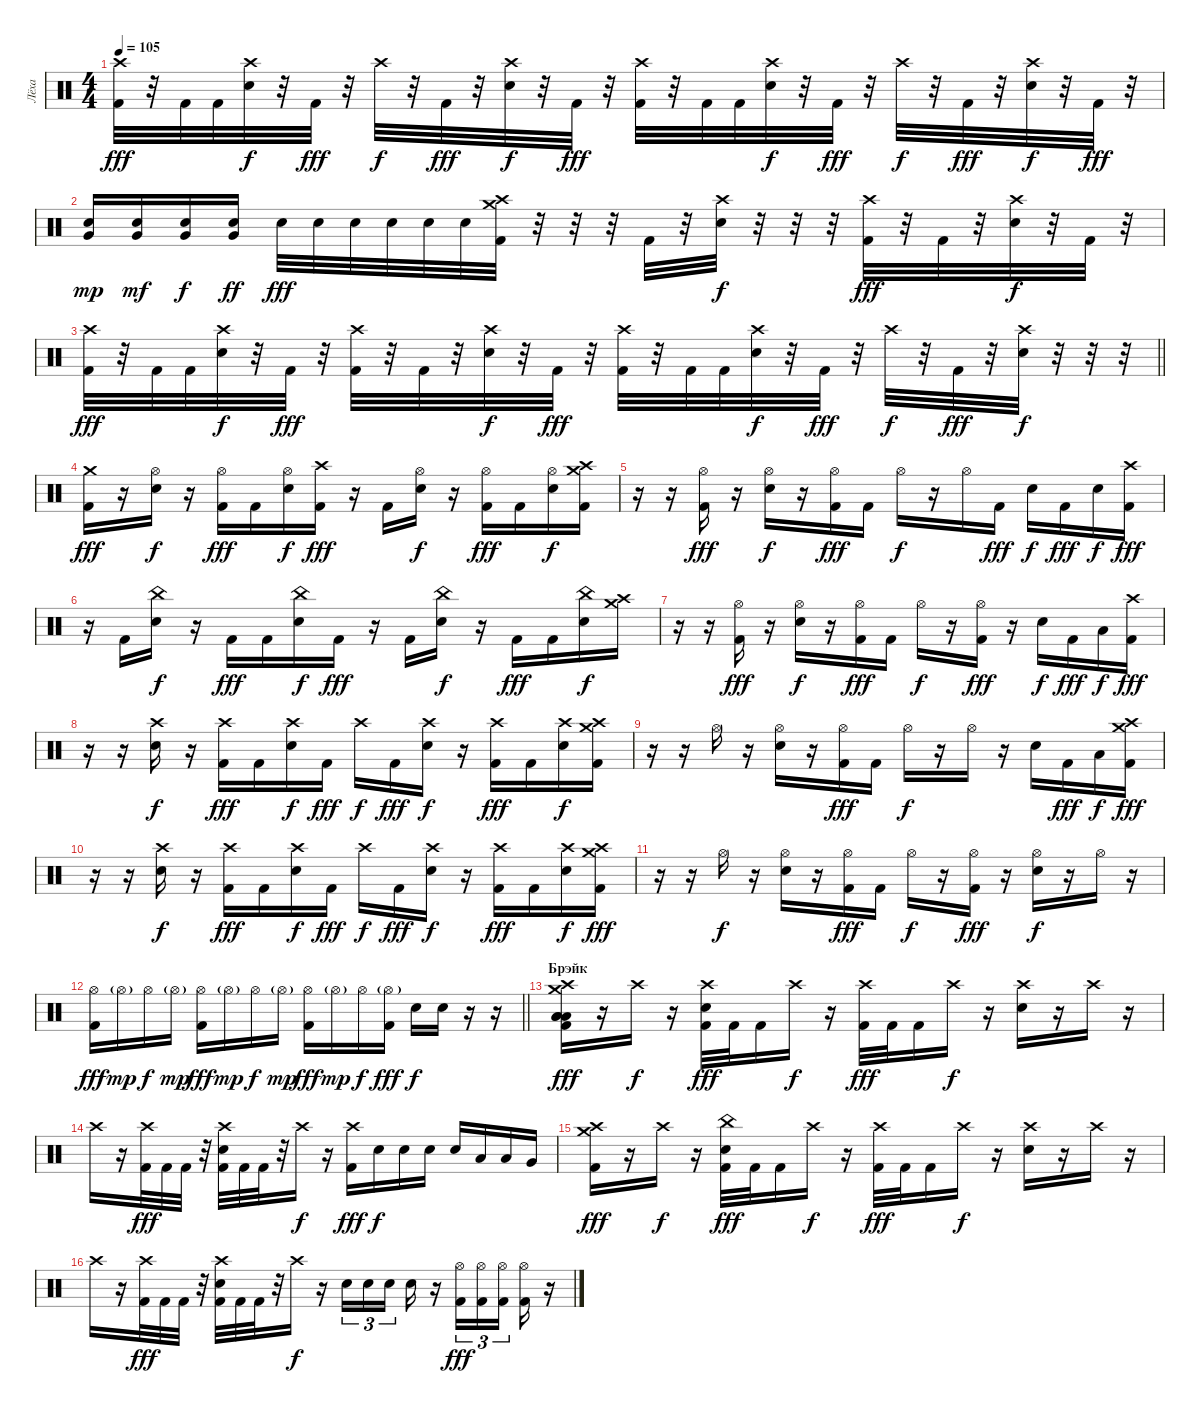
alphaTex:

\track ("Лёха" "Лёха") {solo instrument percussion}
\staff {score}
\articulation defaults
\ts (4 4)
\tempo 105
\clef neutral
\ks c
("Crash high (hit)" "Kick (hit) 2").32{dy fff} r.32 "Kick (hit) 2".32 "Kick (hit) 2".32 ("Crash high (hit)" "Electric Snare (hit)").32{dy f} r.32 "Kick (hit) 2".32{dy fff} r.32 "Crash high (hit)".32{dy f} r.32 "Kick (hit) 2".32{dy fff} r.32 ("Crash high (hit)" "Electric Snare (hit)").32{dy f} r.32 "Kick (hit) 2".32{dy fff} r.32 ("Crash high (hit)" "Kick (hit) 2").32 r.32 "Kick (hit) 2".32 "Kick (hit) 2".32 ("Crash high (hit)" "Electric Snare (hit)").32{dy f} r.32 "Kick (hit) 2".32{dy fff} r.32 "Crash high (hit)".32{dy f} r.32 "Kick (hit) 2".32{dy fff} r.32 ("Crash high (hit)" "Electric Snare (hit)").32{dy f} r.32 "Kick (hit) 2".32{dy fff} r.32 |
("Very Low Tom (hit)" "Electric Snare (hit)").16{dy mp} ("Very Low Tom (hit)" "Electric Snare (hit)").16{dy mf} ("Very Low Tom (hit)" "Electric Snare (hit)").16{dy f} ("Very Low Tom (hit)" "Electric Snare (hit)").16{dy ff} "Electric Snare (hit)".32{dy fff} "Electric Snare (hit)".32 "Electric Snare (hit)".32 "Electric Snare (hit)".32 "Electric Snare (hit)".32 "Electric Snare (hit)".32 ("Crash medium (hit)" "Crash high (hit)" "Kick (hit) 2").32 r.32 r.32 r.32 "Kick (hit) 2".32 r.32 ("Crash high (hit)" "Electric Snare (hit)").32{dy f} r.32 r.32 r.32 ("Crash high (hit)" "Kick (hit) 2").32{dy fff} r.32 "Kick (hit) 2".32 r.32 ("Crash high (hit)" "Electric Snare (hit)").32{dy f} r.32 "Kick (hit) 2".32 r.32 |
\barLineRight lightlight
("Crash high (hit)" "Kick (hit) 2").32{dy fff} r.32 "Kick (hit) 2".32 "Kick (hit) 2".32 ("Crash high (hit)" "Electric Snare (hit)").32{dy f} r.32 "Kick (hit) 2".32{dy fff} r.32 ("Crash high (hit)" "Kick (hit) 2").32 r.32 "Kick (hit) 2".32 r.32 ("Crash high (hit)" "Electric Snare (hit)").32{dy f} r.32 "Kick (hit) 2".32{dy fff} r.32 ("Crash high (hit)" "Kick (hit) 2").32 r.32 "Kick (hit) 2".32 "Kick (hit) 2".32 ("Crash high (hit)" "Electric Snare (hit)").32{dy f} r.32 "Kick (hit) 2".32{dy fff} r.32 "Crash high (hit)".32{dy f} r.32 "Kick (hit) 2".32{dy fff} r.32 ("Crash high (hit)" "Electric Snare (hit)").32{dy f} r.32 r.32 r.32 |
\section ("" "")
("Crash medium (hit)" "Kick (hit) 2").16{dy fff} r.16 ("Hi-Hat (open)" "Electric Snare (hit)").16{dy f} r.16 ("Hi-Hat (open)" "Kick (hit) 2").16{dy fff} "Kick (hit) 2".16 ("Hi-Hat (open)" "Electric Snare (hit)").16{dy f} ("Crash high (hit)" "Kick (hit) 2").16{dy fff} r.16 "Kick (hit) 2".16 ("Hi-Hat (open)" "Electric Snare (hit)").16{dy f} r.16 ("Hi-Hat (open)" "Kick (hit) 2").16{dy fff} "Kick (hit) 2".16 ("Hi-Hat (open)" "Electric Snare (hit)").16{dy f} ("Crash medium (hit)" "Crash high (hit)" "Kick (hit) 2").16 |
r.16 r.16 ("Hi-Hat (open)" "Kick (hit) 2").16{dy fff} r.16 ("Hi-Hat (open)" "Electric Snare (hit)").16{dy f} r.16 ("Hi-Hat (open)" "Kick (hit) 2").16{dy fff} "Kick (hit) 2".16 "Hi-Hat (open)".16{dy f} r.16 "Hi-Hat (open)".16 "Kick (hit) 2".16{dy fff} "Electric Snare (hit)".16{dy f} "Kick (hit) 2".16{dy fff} "Electric Snare (hit)".16{dy f} ("Crash high (hit)" "Kick (hit) 2").16{dy fff} |
r.16 "Kick (hit) 2".16 ("China (hit)" "Electric Snare (hit)").16{dy f} r.16 "Kick (hit) 2".16{dy fff} "Kick (hit) 2".16 ("China (hit)" "Electric Snare (hit)").16{dy f} "Kick (hit) 2".16{dy fff} r.16 "Kick (hit) 2".16 ("China (hit)" "Electric Snare (hit)").16{dy f} r.16 "Kick (hit) 2".16{dy fff} "Kick (hit) 2".16 ("China (hit)" "Electric Snare (hit)").16{dy f} ("Crash high (hit)" "Crash medium (hit)").16 |
r.16 r.16 ("Hi-Hat (open)" "Kick (hit) 2").16{dy fff} r.16 ("Hi-Hat (open)" "Electric Snare (hit)").16{dy f} r.16 ("Hi-Hat (open)" "Kick (hit) 2").16{dy fff} "Kick (hit) 2".16 "Hi-Hat (open)".16{dy f} r.16 ("Hi-Hat (open)" "Kick (hit) 2").16{dy fff} r.16 "Electric Snare (hit)".16{dy f} "Kick (hit) 2".16{dy fff} "Low Tom (hit)".16{dy f} ("Crash high (hit)" "Kick (hit) 2").16{dy fff} |
r.16 r.16 ("Crash high (hit)" "Electric Snare (hit)").16{dy f} r.16 ("Crash high (hit)" "Kick (hit) 2").16{dy fff} "Kick (hit) 2".16 ("Crash high (hit)" "Electric Snare (hit)").16{dy f} "Kick (hit) 2".16{dy fff} "Crash high (hit)".16{dy f} "Kick (hit) 2".16{dy fff} ("Crash high (hit)" "Electric Snare (hit)").16{dy f} r.16 ("Crash high (hit)" "Kick (hit) 2").16{dy fff} "Kick (hit) 2".16 ("Crash high (hit)" "Electric Snare (hit)").16{dy f} ("Crash medium (hit)" "Crash high (hit)" "Kick (hit) 2").16 |
r.16 r.16 "Hi-Hat (open)".16 r.16 ("Hi-Hat (open)" "Electric Snare (hit)").16 r.16 ("Hi-Hat (open)" "Kick (hit) 2").16{dy fff} "Kick (hit) 2".16 "Hi-Hat (open)".16{dy f} r.16 "Hi-Hat (open)".16 r.16 "Electric Snare (hit)".16 "Kick (hit) 2".16{dy fff} "Low Tom (hit)".16{dy f} ("Crash high (hit)" "Crash medium (hit)" "Kick (hit) 2").16{dy fff} |
r.16 r.16 ("Crash high (hit)" "Electric Snare (hit)").16{dy f} r.16 ("Crash high (hit)" "Kick (hit) 2").16{dy fff} "Kick (hit) 2".16 ("Crash high (hit)" "Electric Snare (hit)").16{dy f} "Kick (hit) 2".16{dy fff} "Crash high (hit)".16{dy f} "Kick (hit) 2".16{dy fff} ("Crash high (hit)" "Electric Snare (hit)").16{dy f} r.16 ("Crash high (hit)" "Kick (hit) 2").16{dy fff} "Kick (hit) 2".16 ("Crash high (hit)" "Electric Snare (hit)").16{dy f} ("Crash high (hit)" "Crash medium (hit)" "Kick (hit) 2").16{dy fff} |
r.16 r.16 "Hi-Hat (open)".16{dy f} r.16 ("Hi-Hat (open)" "Electric Snare (hit)").16 r.16 ("Hi-Hat (open)" "Kick (hit) 2").16{dy fff} "Kick (hit) 2".16 "Hi-Hat (open)".16{dy f} r.16 ("Hi-Hat (open)" "Kick (hit) 2").16{dy fff} r.16 ("Hi-Hat (open)" "Electric Snare (hit)").16{dy f} r.16 "Hi-Hat (open)".16 r.16 |
\barLineRight lightlight
("Hi-Hat (open)" "Kick (hit) 2").16{dy fff} "Hi-Hat (open)"{g}.16{dy mp} "Hi-Hat (open)".16{dy f} "Hi-Hat (open)"{g}.16{dy mp} ("Hi-Hat (open)" "Kick (hit) 2").16{dy fff} "Hi-Hat (open)"{g}.16{dy mp} "Hi-Hat (open)".16{dy f} "Hi-Hat (open)"{g}.16{dy mp} ("Hi-Hat (open)" "Kick (hit) 2").16{dy fff} "Hi-Hat (open)"{g}.16{dy mp} "Hi-Hat (open)".16{dy f} ("Hi-Hat (open)"{g} "Kick (hit) 2").16{dy fff} "Electric Snare (hit)".16{dy f} "Electric Snare (hit)".16 r.16{volume 0} r.16 |
\section ("" "Брэйк")
("Crash high (hit)" "Crash medium (hit)" "Low Floor Tom (hit)" "Low Floor Tom (hit)" "Low Floor Tom (hit)" "Kick (hit) 2").16{dy fff volume 16} r.16 "Crash high (hit)".16{dy f} r.16 ("Crash high (hit)" "Electric Snare (hit)" "Kick (hit) 2").32{dy fff} "Kick (hit) 2".32 "Kick (hit) 2".16 "Crash high (hit)".16{dy f} r.16 ("Crash high (hit)" "Kick (hit) 2").32{dy fff} "Kick (hit) 2".32 "Kick (hit) 2".16 "Crash high (hit)".16{dy f} r.16 ("Crash high (hit)" "Electric Snare (hit)").16 r.16 "Crash high (hit)".16 r.16 |
"Crash high (hit)".16 r.16 ("Crash high (hit)" "Kick (hit) 2").32{dy fff} "Kick (hit) 2".32 "Kick (hit) 2".32 r.32 ("Crash high (hit)" "Electric Snare (hit)" "Kick (hit) 2").32 "Kick (hit) 2".32 "Kick (hit) 2".32 r.32 "Crash high (hit)".16{dy f} r.16 ("Crash high (hit)" "Kick (hit) 2").16{dy fff} "Electric Snare (hit)".16{dy f} "Electric Snare (hit)".16 "Electric Snare (hit)".16 "Electric Snare (hit)".16 "Low Tom (hit)".16 "Low Tom (hit)".16 "Very Low Tom (hit)".16 |
("Crash high (hit)" "Crash medium (hit)" "Kick (hit) 2").16{dy fff} r.16 "Crash high (hit)".16{dy f} r.16 ("China (hit)" "Electric Snare (hit)" "Kick (hit) 2").32{dy fff} "Kick (hit) 2".32 "Kick (hit) 2".16 "Crash high (hit)".16{dy f} r.16 ("Crash high (hit)" "Kick (hit) 2").32{dy fff} "Kick (hit) 2".32 "Kick (hit) 2".16 "Crash high (hit)".16{dy f} r.16 ("Crash high (hit)" "Electric Snare (hit)").16 r.16 "Crash high (hit)".16 r.16 |
"Crash high (hit)".16 r.16 ("Crash high (hit)" "Kick (hit) 2").32{dy fff} "Kick (hit) 2".32 "Kick (hit) 2".32 r.32 ("Crash high (hit)" "Electric Snare (hit)" "Kick (hit) 2").32 "Kick (hit) 2".32 "Kick (hit) 2".32 r.32 "Crash high (hit)".16{dy f} r.16 "Electric Snare (hit)".16{tu (3 2)} "Electric Snare (hit)".16{tu (3 2)} "Electric Snare (hit)".16{tu (3 2) beam splitsecondary} "Electric Snare (hit)".16 r.16 ("Hi-Hat (open)" "Kick (hit) 2").16{tu (3 2) dy fff} ("Hi-Hat (open)" "Kick (hit) 2").16{tu (3 2)} ("Hi-Hat (open)" "Kick (hit) 2").16{tu (3 2) beam splitsecondary} ("Hi-Hat (open)" "Kick (hit) 2").16 r.16
